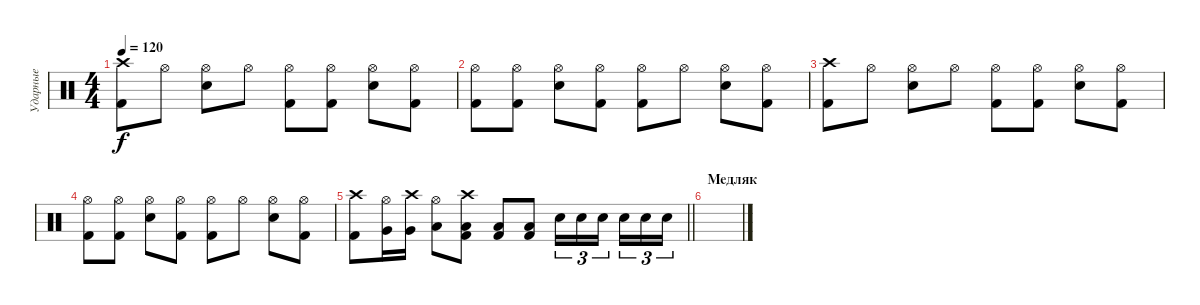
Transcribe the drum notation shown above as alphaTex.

\track ("Ударные" "Ударные") {instrument percussion}
\staff {score}
\articulation defaults
\ts (4 4)
\tempo 120
\clef neutral
\ks c
("Crash high (hit)" "Kick (hit) 2").8{dy f} "Hi-Hat (open)".8 ("Hi-Hat (open)" "Snare (hit) 2").8 "Hi-Hat (open)".8 ("Hi-Hat (open)" "Kick (hit) 2").8 ("Hi-Hat (open)" "Kick (hit) 2").8 ("Hi-Hat (open)" "Snare (hit) 2").8 ("Hi-Hat (open)" "Kick (hit) 2").8 |
("Hi-Hat (open)" "Kick (hit) 2").8 ("Hi-Hat (open)" "Kick (hit) 2").8 ("Hi-Hat (open)" "Snare (hit) 2").8 ("Hi-Hat (open)" "Kick (hit) 2").8 ("Hi-Hat (open)" "Kick (hit) 2").8 "Hi-Hat (open)".8 ("Hi-Hat (open)" "Snare (hit) 2").8 ("Hi-Hat (open)" "Kick (hit) 2").8 |
("Crash high (hit)" "Kick (hit) 2").8 "Hi-Hat (open)".8 ("Hi-Hat (open)" "Snare (hit) 2").8 "Hi-Hat (open)".8 ("Hi-Hat (open)" "Kick (hit) 2").8 ("Hi-Hat (open)" "Kick (hit) 2").8 ("Hi-Hat (open)" "Snare (hit) 2").8 ("Hi-Hat (open)" "Kick (hit) 2").8 |
("Hi-Hat (open)" "Kick (hit) 2").8 ("Hi-Hat (open)" "Kick (hit) 2").8 ("Hi-Hat (open)" "Snare (hit) 2").8 ("Hi-Hat (open)" "Kick (hit) 2").8 ("Hi-Hat (open)" "Kick (hit) 2").8 "Hi-Hat (open)".8 ("Hi-Hat (open)" "Snare (hit) 2").8 ("Hi-Hat (open)" "Kick (hit) 2").8 |
\barLineRight lightlight
("Crash high (hit)" "Kick (hit) 2").8 ("Hi-Hat (open)" "Very Low Tom (hit)").16 ("Crash high (hit)" "Very Low Tom (hit)").16 ("Hi-Hat (open)" "Low Floor Tom (hit)").8 ("Crash high (hit)" "Low Floor Tom (hit)" "Kick (hit) 2").8 ("Low Tom (hit)" "Kick (hit) 2").8 ("Low Tom (hit)" "Kick (hit) 2").8 "Snare (hit) 2".16{tu (3 2)} "Snare (hit) 2".16{tu (3 2)} "Snare (hit) 2".16{tu (3 2) beam splitsecondary} "Snare (hit) 2".16{tu (3 2)} "Snare (hit) 2".16{tu (3 2)} "Snare (hit) 2".16{tu (3 2)} |
\section ("" "Медляк")
